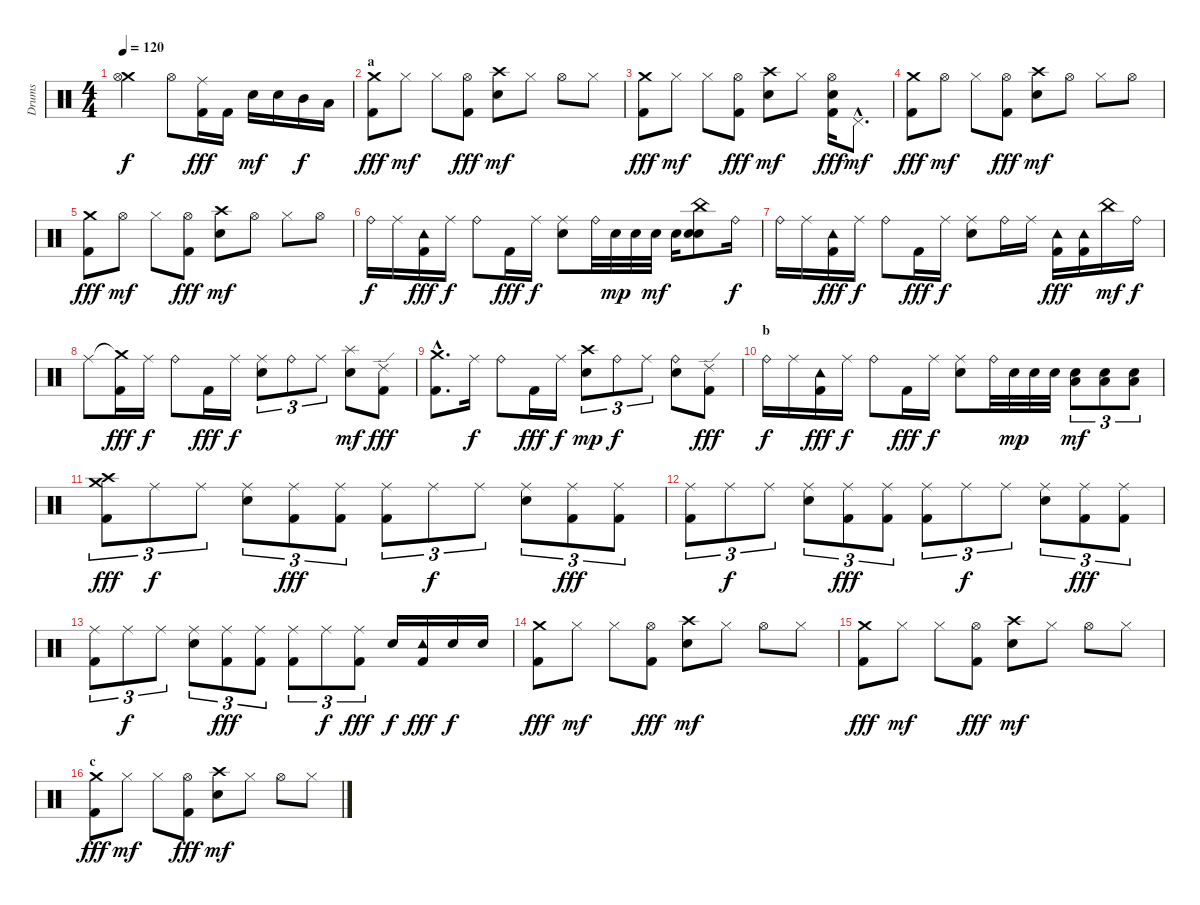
\track ("Drums" "Drums") {instrument percussion}
\staff {score}
\articulation defaults
\ts (4 4)
\tempo 120
\clef neutral
\ks c
("Crash medium (hit)" "Hi-Hat (open)").2{dy f} "Hi-Hat (open)".8 ("Ride (middle)" "Kick (hit) 2").16{dy fff} "Kick (hit) 2".16 "Electric Snare (hit)".16{dy mf} "Electric Snare (hit)".16 "Mid Tom (hit)".16{dy f} "Low Tom (hit)".16 |
\section ("" "a")
("Crash medium (hit)" "Kick (hit) 2").8{dy fff} "Hi-Hat (closed)".8{dy mf} "Hi-Hat (closed)".8 ("Hi-Hat (open)" "Kick (hit) 2").8{dy fff} ("Crash high (hit)" "Electric Snare (hit)").8{dy mf} "Hi-Hat (closed)".8 "Hi-Hat (open)".8 "Hi-Hat (closed)".8 |
("Crash medium (hit)" "Kick (hit) 2").8{dy fff} "Hi-Hat (closed)".8{dy mf} "Hi-Hat (closed)".8 ("Hi-Hat (open)" "Kick (hit) 2").8{dy fff} ("Crash high (hit)" "Electric Snare (hit)").8{dy mf} "Hi-Hat (closed)".8 ("Hi-Hat (open)" "Electric Snare (hit)" "Kick (hit) 2").16{dy fff} "Pedal Hi-Hat (hit)"{hac}.8{d dy mf} |
("Crash medium (hit)" "Kick (hit) 2").8{dy fff} "Hi-Hat (open)".8{dy mf} "Hi-Hat (closed)".8 ("Hi-Hat (open)" "Kick (hit) 2").8{dy fff} ("Crash high (hit)" "Electric Snare (hit)").8{dy mf} "Hi-Hat (open)".8 "Hi-Hat (closed)".8 "Hi-Hat (open)".8 |
("Crash medium (hit)" "Kick (hit) 2").8{dy fff} "Hi-Hat (open)".8{dy mf} "Hi-Hat (closed)".8 ("Hi-Hat (open)" "Kick (hit) 2").8{dy fff} ("Crash high (hit)" "Electric Snare (hit)").8{dy mf} "Hi-Hat (open)".8 "Hi-Hat (closed)".8 "Hi-Hat (open)".8 |
"Ride (bell)".16{dy f} "Ride (middle)".16 ("Tambourine (hit)" "Kick (hit) 2").16{dy fff} "Ride (middle)".16{dy f} "Ride (bell)".8 "Kick (hit) 2".16{dy fff} "Ride (middle)".16{dy f} ("Ride (middle)" "Electric Snare (hit)").8 "Ride (bell)".32 "Electric Snare (hit)".32{dy mp} "Electric Snare (hit)".32 "Electric Snare (hit)".32{dy mf} "Electric Snare (hit)".16 ("China (hit)" "Electric Snare (hit)" "Snare (hit) 2").8 "Ride (bell)".16{dy f} |
"Ride (bell)".16 "Ride (middle)".16 ("Tambourine (hit)" "Kick (hit) 2").16{dy fff} "Ride (middle)".16{dy f} "Ride (bell)".8 "Kick (hit) 2".16{dy fff} "Ride (middle)".16{dy f} ("Ride (middle)" "Electric Snare (hit)").8 "Ride (bell)".16 "Ride (middle)".16 ("Tambourine (hit)" "Kick (hit) 2").16{dy fff} ("Tambourine (hit)" "Kick (hit) 2").16 "China (hit)".16{dy mf} "Ride (bell)".16{dy f} |
"Ride (middle)".8 ("Crash medium (hit)"{t} "Kick (hit) 2").16{dy fff} "Ride (middle)".16{dy f} "Ride (bell)".8 "Kick (hit) 2".16{dy fff} "Ride (middle)".16{dy f} ("Ride (middle)" "Electric Snare (hit)").8{tu (3 2)} "Ride (bell)".8{tu (3 2)} "Ride (middle)".8{tu (3 2)} ("Splash (hit)" "Electric Snare (hit)").8{dy mf} ("Ride (edge) 2" "Kick (hit) 2").8{dy fff} |
("Crash medium (hit)"{hac} "Kick (hit) 2"{hac}).8{d} "Ride (middle)".16{dy f} "Ride (bell)".8 "Kick (hit) 2".16{dy fff} "Ride (middle)".16{dy f} ("Crash high (hit)" "Electric Snare (hit)").8{tu (3 2) dy mp} "Ride (bell)".8{tu (3 2) dy f} "Ride (middle)".8{tu (3 2)} ("Ride (bell)" "Electric Snare (hit)").8 ("Ride (edge) 2" "Kick (hit) 2").8{dy fff} |
\section ("" "b")
"Ride (bell)".16{dy f} "Ride (middle)".16 ("Tambourine (hit)" "Kick (hit) 2").16{dy fff} "Ride (middle)".16{dy f} "Ride (bell)".8 "Kick (hit) 2".16{dy fff} "Ride (middle)".16{dy f} ("Ride (middle)" "Electric Snare (hit)").8 "Ride (bell)".32 "Electric Snare (hit)".32{dy mp} "Electric Snare (hit)".32 "Electric Snare (hit)".32 ("Electric Snare (hit)" "Low Tom (hit)").8{tu (3 2) dy mf} ("Electric Snare (hit)" "Low Tom (hit)").8{tu (3 2)} ("Electric Snare (hit)" "Low Tom (hit)").8{tu (3 2)} |
("Crash medium (hit)" "Crash high (hit)" "Kick (hit) 2").8{tu (3 2) dy fff} "Ride (middle)".8{tu (3 2) dy f} "Ride (middle)".8{tu (3 2)} ("Ride (middle)" "Electric Snare (hit)").8{tu (3 2)} ("Ride (middle)" "Kick (hit) 2").8{tu (3 2) dy fff} ("Ride (middle)" "Kick (hit) 2").8{tu (3 2)} ("Ride (middle)" "Kick (hit) 2").8{tu (3 2)} "Ride (middle)".8{tu (3 2) dy f} "Ride (middle)".8{tu (3 2)} ("Ride (middle)" "Electric Snare (hit)").8{tu (3 2)} ("Ride (middle)" "Kick (hit) 2").8{tu (3 2) dy fff} ("Ride (middle)" "Kick (hit) 2").8{tu (3 2)} |
("Ride (middle)" "Kick (hit) 2").8{tu (3 2)} "Ride (middle)".8{tu (3 2) dy f} "Ride (middle)".8{tu (3 2)} ("Ride (middle)" "Electric Snare (hit)").8{tu (3 2)} ("Ride (middle)" "Kick (hit) 2").8{tu (3 2) dy fff} ("Ride (middle)" "Kick (hit) 2").8{tu (3 2)} ("Ride (middle)" "Kick (hit) 2").8{tu (3 2)} "Ride (middle)".8{tu (3 2) dy f} "Ride (middle)".8{tu (3 2)} ("Ride (middle)" "Electric Snare (hit)").8{tu (3 2)} ("Ride (middle)" "Kick (hit) 2").8{tu (3 2) dy fff} ("Ride (middle)" "Kick (hit) 2").8{tu (3 2)} |
("Ride (middle)" "Kick (hit) 2").8{tu (3 2)} "Ride (middle)".8{tu (3 2) dy f} "Ride (middle)".8{tu (3 2)} ("Ride (middle)" "Electric Snare (hit)").8{tu (3 2)} ("Ride (middle)" "Kick (hit) 2").8{tu (3 2) dy fff} ("Ride (middle)" "Kick (hit) 2").8{tu (3 2)} ("Ride (middle)" "Kick (hit) 2").8{tu (3 2)} "Ride (middle)".8{tu (3 2) dy f} ("Ride (middle)" "Kick (hit) 2").8{tu (3 2) dy fff} "Electric Snare (hit)".16{dy f} ("Tambourine (hit)" "Kick (hit) 2").16{dy fff} "Electric Snare (hit)".16{dy f} "Electric Snare (hit)".16 |
("Crash medium (hit)" "Kick (hit) 2").8{dy fff} "Hi-Hat (closed)".8{dy mf} "Hi-Hat (closed)".8 ("Hi-Hat (open)" "Kick (hit) 2").8{dy fff} ("Crash high (hit)" "Electric Snare (hit)").8{dy mf} "Hi-Hat (closed)".8 "Hi-Hat (open)".8 "Hi-Hat (closed)".8 |
("Crash medium (hit)" "Kick (hit) 2").8{dy fff} "Hi-Hat (closed)".8{dy mf} "Hi-Hat (closed)".8 ("Hi-Hat (open)" "Kick (hit) 2").8{dy fff} ("Crash high (hit)" "Electric Snare (hit)").8{dy mf} "Hi-Hat (closed)".8 "Hi-Hat (open)".8 "Hi-Hat (closed)".8 |
\section ("" "c")
("Crash medium (hit)" "Kick (hit) 2").8{dy fff} "Hi-Hat (closed)".8{dy mf} "Hi-Hat (closed)".8 ("Hi-Hat (open)" "Kick (hit) 2").8{dy fff} ("Crash high (hit)" "Electric Snare (hit)").8{dy mf} "Hi-Hat (closed)".8 "Hi-Hat (open)".8 "Hi-Hat (closed)".8
